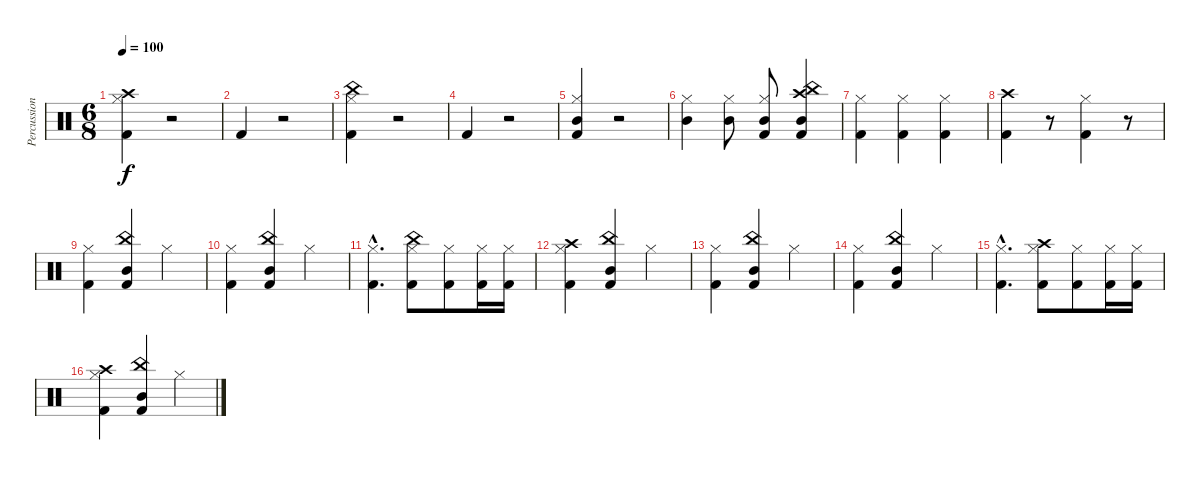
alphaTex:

\track ("Percussion" "Percussion") {instrument percussion}
\staff {score}
\articulation defaults
\ts (6 8)
\tempo 100
\clef neutral
\ks c
("Kick (hit) 2" "Hi-Hat (closed)" "Crash high (hit)").4{dy f} r.2 |
"Kick (hit) 2".4 r.2 |
("Kick (hit) 2" "Hi-Hat (closed)" "China (hit)").4 r.2 |
"Kick (hit) 2".4 r.2 |
("Kick (hit) 2" "Mid Tom (hit)" "Hi-Hat (closed)").4 r.2 |
("Mid Tom (hit)" "Hi-Hat (closed)").4 ("Mid Tom (hit)" "Hi-Hat (closed)").8 ("Kick (hit) 2" "Mid Tom (hit)" "Hi-Hat (closed)").8 ("Kick (hit) 2" "Mid Tom (hit)" "Crash high (hit)" "China (hit)").4 |
("Kick (hit) 2" "Hi-Hat (closed)").4 ("Kick (hit) 2" "Hi-Hat (closed)").4 ("Kick (hit) 2" "Hi-Hat (closed)").4 |
("Kick (hit) 2" "Crash high (hit)").4 r.8 ("Kick (hit) 2" "Hi-Hat (closed)").4 r.8 |
("Kick (hit) 2" "Hi-Hat (closed)").4 ("Kick (hit) 2" "Mid Tom (hit)" "China (hit)").4 "Hi-Hat (closed)".4 |
("Kick (hit) 2" "Hi-Hat (closed)").4 ("Kick (hit) 2" "Mid Tom (hit)" "China (hit)").4 "Hi-Hat (closed)".4 |
("Kick (hit) 2"{hac} "Hi-Hat (closed)"{hac}).4{d} ("Kick (hit) 2" "Hi-Hat (closed)" "China (hit)").8 ("Kick (hit) 2" "Hi-Hat (closed)").8 ("Kick (hit) 2" "Hi-Hat (closed)").16 ("Kick (hit) 2" "Hi-Hat (closed)").16 |
("Kick (hit) 2" "Hi-Hat (closed)" "Crash high (hit)").4 ("Kick (hit) 2" "Mid Tom (hit)" "China (hit)").4 "Hi-Hat (closed)".4 |
("Kick (hit) 2" "Hi-Hat (closed)").4 ("Kick (hit) 2" "Mid Tom (hit)" "China (hit)").4 "Hi-Hat (closed)".4 |
("Kick (hit) 2" "Hi-Hat (closed)").4 ("Kick (hit) 2" "Mid Tom (hit)" "China (hit)").4 "Hi-Hat (closed)".4 |
("Kick (hit) 2"{hac} "Hi-Hat (closed)"{hac}).4{d} ("Kick (hit) 2" "Hi-Hat (closed)" "Crash high (hit)").8 ("Kick (hit) 2" "Hi-Hat (closed)").8 ("Kick (hit) 2" "Hi-Hat (closed)").16 ("Kick (hit) 2" "Hi-Hat (closed)").16 |
("Kick (hit) 2" "Hi-Hat (closed)" "Crash high (hit)").4 ("Kick (hit) 2" "Mid Tom (hit)" "China (hit)").4 "Hi-Hat (closed)".4
